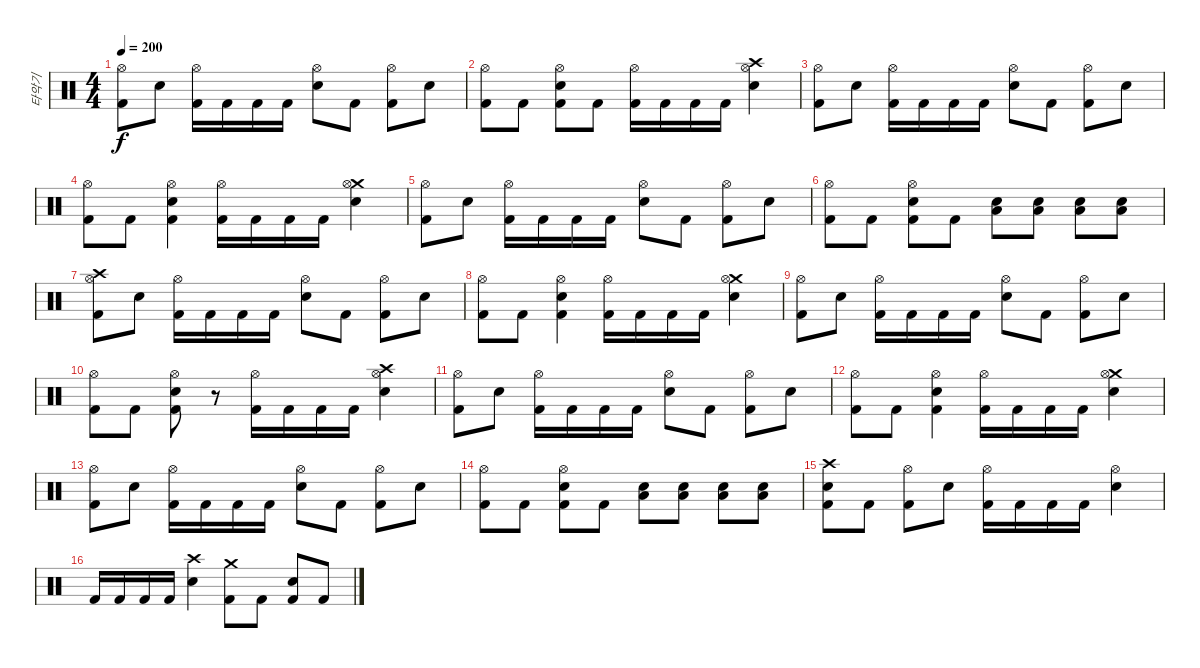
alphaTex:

\track ("타악기" "타악기") {instrument percussion}
\staff {score}
\articulation defaults
\ts (4 4)
\tempo 200
\clef neutral
\ks c
("Hi-Hat (open)" "Kick (hit) 2").8{dy f} "Snare (hit) 2".8 ("Hi-Hat (open)" "Kick (hit) 2").16 "Kick (hit) 2".16 "Kick (hit) 2".16 "Kick (hit) 2".16 ("Hi-Hat (open)" "Snare (hit) 2").8 "Kick (hit) 2".8 ("Hi-Hat (open)" "Kick (hit) 2").8 "Snare (hit) 2".8 |
("Hi-Hat (open)" "Kick (hit) 2").8 "Kick (hit) 2".8 ("Hi-Hat (open)" "Snare (hit) 2" "Kick (hit) 2").8 "Kick (hit) 2".8 ("Hi-Hat (open)" "Kick (hit) 2").16 "Kick (hit) 2".16 "Kick (hit) 2".16 "Kick (hit) 2".16 ("Crash high (hit)" "Hi-Hat (open)" "Snare (hit) 2").4 |
("Hi-Hat (open)" "Kick (hit) 2").8 "Snare (hit) 2".8 ("Hi-Hat (open)" "Kick (hit) 2").16 "Kick (hit) 2".16 "Kick (hit) 2".16 "Kick (hit) 2".16 ("Hi-Hat (open)" "Snare (hit) 2").8 "Kick (hit) 2".8 ("Hi-Hat (open)" "Kick (hit) 2").8 "Snare (hit) 2".8 |
("Hi-Hat (open)" "Kick (hit) 2").8 "Kick (hit) 2".8 ("Hi-Hat (open)" "Snare (hit) 2" "Kick (hit) 2").4 ("Hi-Hat (open)" "Kick (hit) 2").16 "Kick (hit) 2".16 "Kick (hit) 2".16 "Kick (hit) 2".16 ("Crash medium (hit)" "Hi-Hat (open)" "Snare (hit) 2").4 |
("Hi-Hat (open)" "Kick (hit) 2").8 "Snare (hit) 2".8 ("Hi-Hat (open)" "Kick (hit) 2").16 "Kick (hit) 2".16 "Kick (hit) 2".16 "Kick (hit) 2".16 ("Hi-Hat (open)" "Snare (hit) 2").8 "Kick (hit) 2".8 ("Hi-Hat (open)" "Kick (hit) 2").8 "Snare (hit) 2".8 |
("Hi-Hat (open)" "Kick (hit) 2").8 "Kick (hit) 2".8 ("Hi-Hat (open)" "Snare (hit) 2" "Kick (hit) 2").8 "Kick (hit) 2".8 ("Low Tom (hit)" "Snare (hit) 2").8 ("Low Tom (hit)" "Snare (hit) 2").8 ("Low Tom (hit)" "Snare (hit) 2").8 ("Low Tom (hit)" "Snare (hit) 2").8 |
("Crash high (hit)" "Hi-Hat (open)" "Kick (hit) 2").8 "Snare (hit) 2".8 ("Hi-Hat (open)" "Kick (hit) 2").16 "Kick (hit) 2".16 "Kick (hit) 2".16 "Kick (hit) 2".16 ("Hi-Hat (open)" "Snare (hit) 2").8 "Kick (hit) 2".8 ("Hi-Hat (open)" "Kick (hit) 2").8 "Snare (hit) 2".8 |
("Hi-Hat (open)" "Kick (hit) 2").8 "Kick (hit) 2".8 ("Hi-Hat (open)" "Snare (hit) 2" "Kick (hit) 2").4 ("Hi-Hat (open)" "Kick (hit) 2").16 "Kick (hit) 2".16 "Kick (hit) 2".16 "Kick (hit) 2".16 ("Crash medium (hit)" "Hi-Hat (open)" "Snare (hit) 2").4 |
("Hi-Hat (open)" "Kick (hit) 2").8 "Snare (hit) 2".8 ("Hi-Hat (open)" "Kick (hit) 2").16 "Kick (hit) 2".16 "Kick (hit) 2".16 "Kick (hit) 2".16 ("Hi-Hat (open)" "Snare (hit) 2").8 "Kick (hit) 2".8 ("Hi-Hat (open)" "Kick (hit) 2").8 "Snare (hit) 2".8 |
("Hi-Hat (open)" "Kick (hit) 2").8 "Kick (hit) 2".8 ("Hi-Hat (open)" "Snare (hit) 2" "Kick (hit) 2").8 r.8 ("Hi-Hat (open)" "Kick (hit) 2").16 "Kick (hit) 2".16 "Kick (hit) 2".16 "Kick (hit) 2".16 ("Crash high (hit)" "Hi-Hat (open)" "Snare (hit) 2").4 |
("Hi-Hat (open)" "Kick (hit) 2").8 "Snare (hit) 2".8 ("Hi-Hat (open)" "Kick (hit) 2").16 "Kick (hit) 2".16 "Kick (hit) 2".16 "Kick (hit) 2".16 ("Hi-Hat (open)" "Snare (hit) 2").8 "Kick (hit) 2".8 ("Hi-Hat (open)" "Kick (hit) 2").8 "Snare (hit) 2".8 |
("Hi-Hat (open)" "Kick (hit) 2").8 "Kick (hit) 2".8 ("Hi-Hat (open)" "Snare (hit) 2" "Kick (hit) 2").4 ("Hi-Hat (open)" "Kick (hit) 2").16 "Kick (hit) 2".16 "Kick (hit) 2".16 "Kick (hit) 2".16 ("Crash medium (hit)" "Hi-Hat (open)" "Snare (hit) 2").4 |
("Hi-Hat (open)" "Kick (hit) 2").8 "Snare (hit) 2".8 ("Hi-Hat (open)" "Kick (hit) 2").16 "Kick (hit) 2".16 "Kick (hit) 2".16 "Kick (hit) 2".16 ("Hi-Hat (open)" "Snare (hit) 2").8 "Kick (hit) 2".8 ("Hi-Hat (open)" "Kick (hit) 2").8 "Snare (hit) 2".8 |
("Hi-Hat (open)" "Kick (hit) 2").8 "Kick (hit) 2".8 ("Hi-Hat (open)" "Snare (hit) 2" "Kick (hit) 2").8 "Kick (hit) 2".8 ("Low Tom (hit)" "Snare (hit) 2").8 ("Low Tom (hit)" "Snare (hit) 2").8 ("Low Tom (hit)" "Snare (hit) 2").8 ("Low Tom (hit)" "Snare (hit) 2").8 |
("Crash high (hit)" "Snare (hit) 2" "Kick (hit) 2").8 "Kick (hit) 2".8 ("Hi-Hat (open)" "Kick (hit) 2").8 "Snare (hit) 2".8 ("Hi-Hat (open)" "Kick (hit) 2").16 "Kick (hit) 2".16 "Kick (hit) 2".16 "Kick (hit) 2".16 ("Hi-Hat (open)" "Snare (hit) 2").4 |
"Kick (hit) 2".16 "Kick (hit) 2".16 "Kick (hit) 2".16 "Kick (hit) 2".16 ("Crash high (hit)" "Snare (hit) 2").4 ("Crash medium (hit)" "Kick (hit) 2").8 "Kick (hit) 2".8 ("Snare (hit) 2" "Kick (hit) 2").8 "Kick (hit) 2".8
